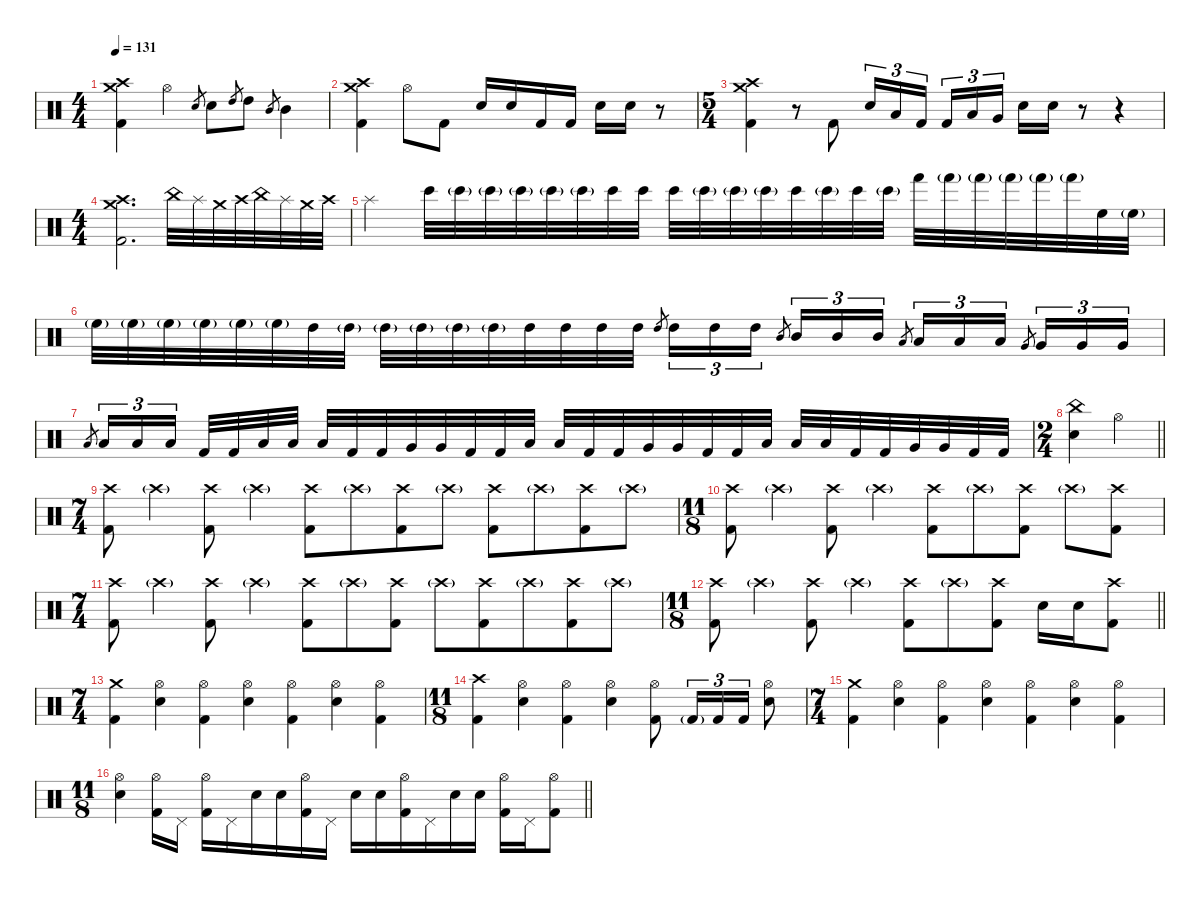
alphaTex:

\defaultSystemsLayout 4
\hideDynamics
\bracketExtendMode nobrackets
\singleTrackTrackNamePolicy hidden
\multiTrackTrackNamePolicy hidden
\otherSystemsTrackNameOrientation horizontal
\track ("Drums" "drm.") {defaultSystemsLayout 4 instrument percussion}
\staff {score}
\articulation defaults
\ts (4 4)
\beaming (8 2 2 2 2)
\tempo 131
\clef neutral
\ks c
("Kick (hit) 2" "Crash medium (hit)" "Crash high (hit)").4{dy fff beam Down} "Hi-Hat (open)".4{dy mf beam Down} "Electric Snare (hit)".8{gr dy mp beam Up} "Snare (hit) 2".8{dy fff beam Down} "High Tom (hit)".8{gr dy ff beam Up} "High Tom (hit)".8{dy fff beam Down} "Mid Tom (hit)".8{gr dy ff beam Up} "Mid Tom (hit)".4{dy fff beam Down} |
("Kick (hit) 2" "Crash medium (hit)" "Crash high (hit)").4{beam Down} "Hi-Hat (open)".8{dy mf beam Down} "Kick (hit) 2".8{dy fff beam Down} "Snare (hit) 2".16{beam Up} "Snare (hit) 2".16{beam Up} "Kick (hit) 2".16{beam Up} "Kick (hit) 2".16{beam Up} "Snare (hit) 2".16{beam Down} "Snare (hit) 2".16{beam Down} r.8{beam Down} |
\ts (5 4)
\beaming (8 6 4)
("Kick (hit) 2" "Crash medium (hit)" "Crash high (hit)").4{beam Down} r.8{beam Down} "Kick (hit) 2".8{beam Up} "Snare (hit) 2".16{tu (3 2) beam Up} "Low Tom (hit)".16{tu (3 2) beam Up} "Kick (hit) 2".16{tu (3 2) beam Up} "Kick (hit) 2".16{tu (3 2) beam Up} "Low Tom (hit)".16{tu (3 2) beam Up} "Very Low Tom (hit)".16{tu (3 2) beam Up} "Snare (hit) 2".16{beam Down} "Snare (hit) 2".16{beam Down} r.8{beam Down} r.4{beam Down} |
\ts (4 4)
\beaming (8 2 2 2 2)
("Kick (hit) 2" "Crash medium (hit)" "Crash high (hit)").2{d beam Down} "China (hit)".32{dy ppp beam Down} "Splash (hit)".32{beam Down} "Crash medium (hit)".32{dy pp beam Down} "Crash high (hit)".32{beam Down} "China (hit)".32{dy p beam Down} "Splash (hit)".32{beam Down} "Crash medium (hit)".32{dy mp beam Down} "Crash high (hit)".32{dy mf beam Down} |
"Splash (hit)".4{dy f beam Down} "Bongo High (hit)".32{beam Down} "Bongo High (hit)"{g}.32{dy ff beam Down} "Bongo High (hit)"{g}.32{beam Down} "Bongo High (hit)"{g}.32{beam Down} "Bongo High (hit)"{g}.32{beam Down} "Bongo High (hit)"{g}.32{beam Down} "Bongo High (hit)".32{dy f beam Down} "Bongo High (hit)".32{beam Down} "Bongo High (hit)".32{beam Down} "Bongo High (hit)"{g}.32{dy ff beam Down} "Bongo High (hit)"{g}.32{beam Down} "Bongo High (hit)"{g}.32{beam Down} "Bongo High (hit)".32{dy f beam Down} "Bongo High (hit)"{g}.32{dy ff beam Down} "Bongo High (hit)".32{dy f beam Down} "Bongo High (hit)"{g}.32{dy ff beam Down} "Hand (hit)".32{dy f beam Down} "Hand (hit)"{g}.32{dy ff beam Down} "Hand (hit)"{g}.32{beam Down} "Hand (hit)"{g}.32{beam Down} "Hand (hit)"{g}.32{beam Down} "Hand (hit)"{g}.32{beam Down} "High Floor Tom (hit)".32{dy f beam Down} "High Floor Tom (hit)"{g}.32{dy ff beam Down} |
"High Floor Tom (hit)"{g}.32{dy mf beam Down} "High Floor Tom (hit)"{g}.32{beam Down} "High Floor Tom (hit)"{g}.32{beam Down} "High Floor Tom (hit)"{g}.32{beam Down} "High Floor Tom (hit)"{g}.32{beam Down} "High Floor Tom (hit)"{g}.32{beam Down} "High Tom (hit)".32{dy f beam Down} "High Tom (hit)"{g}.32{dy mf beam Down} "High Tom (hit)"{g}.32{beam Down} "High Tom (hit)"{g}.32{beam Down} "High Tom (hit)"{g}.32{beam Down} "High Tom (hit)"{g}.32{beam Down} "High Tom (hit)".32{beam Down} "High Tom (hit)".32{dy f beam Down} "High Tom (hit)".32{beam Down} "High Tom (hit)".32{dy ff beam Down} "High Tom (hit)".8{gr dy f beam Up} "High Tom (hit)".16{tu (3 2) dy mf beam Down} "High Tom (hit)".16{tu (3 2) beam Down} "High Tom (hit)".16{tu (3 2) beam Down} "Mid Tom (hit)".8{gr dy f beam Up} "Mid Tom (hit)".16{tu (3 2) dy mf beam Up} "Mid Tom (hit)".16{tu (3 2) beam Up} "Mid Tom (hit)".16{tu (3 2) beam Up} "Low Tom (hit)".8{gr dy f beam Up} "Low Tom (hit)".16{tu (3 2) dy mf beam Up} "Low Tom (hit)".16{tu (3 2) beam Up} "Low Tom (hit)".16{tu (3 2) beam Up} "Very Low Tom (hit)".8{gr beam Up} "Very Low Tom (hit)".16{tu (3 2) beam Up} "Very Low Tom (hit)".16{tu (3 2) beam Up} "Very Low Tom (hit)".16{tu (3 2) beam Up} |
"Low Floor Tom (hit)".8{gr dy f beam Up} "Low Floor Tom (hit)".16{tu (3 2) dy ff beam Up} "Low Floor Tom (hit)".16{tu (3 2) beam Up} "Low Floor Tom (hit)".16{tu (3 2) beam Up} "Kick (hit) 2".32{dy f beam Up} "Kick (hit) 2".32{beam Up} "Low Floor Tom (hit)".32{beam Up} "Low Floor Tom (hit)".32{beam Up} "Low Floor Tom (hit)".32{beam Up} "Kick (hit) 2".32{beam Up} "Kick (hit) 2".32{beam Up} "Very Low Tom (hit)".32{beam Up} "Very Low Tom (hit)".32{beam Up} "Kick (hit) 2".32{beam Up} "Kick (hit) 2".32{beam Up} "Low Floor Tom (hit)".32{beam Up} "Low Floor Tom (hit)".32{beam Up} "Kick (hit) 2".32{beam Up} "Kick (hit) 2".32{beam Up} "Very Low Tom (hit)".32{beam Up} "Very Low Tom (hit)".32{beam Up} "Kick (hit) 2".32{beam Up} "Kick (hit) 2".32{beam Up} "Low Floor Tom (hit)".32{beam Up} "Low Floor Tom (hit)".32{beam Up} "Low Floor Tom (hit)".32{beam Up} "Kick (hit) 2".32{beam Up} "Kick (hit) 2".32{beam Up} "Very Low Tom (hit)".32{beam Up} "Very Low Tom (hit)".32{beam Up} "Kick (hit) 2".32{beam Up} "Kick (hit) 2".32{beam Up} |
\ts (2 4)
\beaming (8 2 2)
\barLineRight lightlight
("Snare (hit) 2" "China (hit)").4{dy fff beam Down} "Hi-Hat (open)".4{beam Down} |
\ts (7 4)
\beaming (8 6 4 4)
("Kick (hit) 2" "Crash high (hit)").8{beam Down} "Crash high (hit)"{g}.4{dy pp beam Down} ("Kick (hit) 2" "Crash high (hit)").8{dy fff beam Down} "Crash high (hit)"{g}.4{dy pp beam Down} ("Kick (hit) 2" "Crash high (hit)").8{dy fff beam Down} "Crash high (hit)"{g}.8{dy pp beam Down} ("Kick (hit) 2" "Crash high (hit)").8{dy fff beam Down} "Crash high (hit)"{g}.8{dy pp beam Down} ("Kick (hit) 2" "Crash high (hit)").8{dy fff beam Down} "Crash high (hit)"{g}.8{dy pp beam Down} ("Kick (hit) 2" "Crash high (hit)").8{dy fff beam Down} "Crash high (hit)"{g}.8{dy pp beam Down} |
\ts (11 8)
\beaming (8 3 3 3 2)
("Kick (hit) 2" "Crash high (hit)").8{dy fff beam Down} "Crash high (hit)"{g}.4{dy pp beam Down} ("Kick (hit) 2" "Crash high (hit)").8{dy fff beam Down} "Crash high (hit)"{g}.4{dy pp beam Down} ("Kick (hit) 2" "Crash high (hit)").8{dy fff beam Down} "Crash high (hit)"{g}.8{dy pp beam Down} ("Kick (hit) 2" "Crash high (hit)").8{dy fff beam Down} "Crash high (hit)"{g}.8{dy pp beam Down} ("Kick (hit) 2" "Crash high (hit)").8{dy fff beam Down} |
\ts (7 4)
\beaming (8 3 3 3 5)
("Kick (hit) 2" "Crash high (hit)").8{beam Down} "Crash high (hit)"{g}.4{dy pp beam Down} ("Kick (hit) 2" "Crash high (hit)").8{dy fff beam Down} "Crash high (hit)"{g}.4{dy pp beam Down} ("Kick (hit) 2" "Crash high (hit)").8{dy fff beam Down} "Crash high (hit)"{g}.8{dy pp beam Down} ("Kick (hit) 2" "Crash high (hit)").8{dy fff beam Down} "Crash high (hit)"{g}.8{dy pp beam Down} ("Kick (hit) 2" "Crash high (hit)").8{dy fff beam Down} "Crash high (hit)"{g}.8{dy pp beam Down} ("Kick (hit) 2" "Crash high (hit)").8{dy fff beam Down} "Crash high (hit)"{g}.8{dy pp beam Down} |
\ts (11 8)
\beaming (8 3 3 3 2)
\barLineRight lightlight
("Kick (hit) 2" "Crash high (hit)").8{dy fff beam Down} "Crash high (hit)"{g}.4{dy pp beam Down} ("Kick (hit) 2" "Crash high (hit)").8{dy fff beam Down} "Crash high (hit)"{g}.4{dy pp beam Down} ("Kick (hit) 2" "Crash high (hit)").8{dy fff beam Down} "Crash high (hit)"{g}.8{dy pp beam Down} ("Kick (hit) 2" "Crash high (hit)").8{dy fff beam Down} "Snare (hit) 2".16{beam Down} "Snare (hit) 2".16{beam Down} ("Kick (hit) 2" "Crash high (hit)").8{beam Down} |
\ts (7 4)
\beaming (8 3 3 3 5)
("Kick (hit) 2" "Crash medium (hit)").4{beam Down} ("Snare (hit) 2" "Hi-Hat (open)").4{beam Down} ("Kick (hit) 2" "Hi-Hat (open)").4{beam Down} ("Snare (hit) 2" "Hi-Hat (open)").4{beam Down} ("Kick (hit) 2" "Hi-Hat (open)").4{beam Down} ("Snare (hit) 2" "Hi-Hat (open)").4{beam Down} ("Kick (hit) 2" "Hi-Hat (open)").4{beam Down} |
\ts (11 8)
\beaming (8 3 3 3 2)
("Kick (hit) 2" "Crash high (hit)").4{beam Down} ("Snare (hit) 2" "Hi-Hat (open)").4{beam Down} ("Kick (hit) 2" "Hi-Hat (open)").4{beam Down} ("Snare (hit) 2" "Hi-Hat (open)").4{beam Down} ("Kick (hit) 2" "Hi-Hat (open)").8{beam Down} "Kick (hit) 2"{g}.16{tu (3 2) dy mf beam Up} "Kick (hit) 2".16{tu (3 2) dy fff beam Up} "Kick (hit) 2".16{tu (3 2) beam Up} ("Snare (hit) 2" "Hi-Hat (open)").8{beam Down} |
\ts (7 4)
\beaming (8 3 3 3 5)
("Kick (hit) 2" "Crash medium (hit)").4{beam Down} ("Snare (hit) 2" "Hi-Hat (open)").4{beam Down} ("Kick (hit) 2" "Hi-Hat (open)").4{beam Down} ("Snare (hit) 2" "Hi-Hat (open)").4{beam Down} ("Kick (hit) 2" "Hi-Hat (open)").4{beam Down} ("Snare (hit) 2" "Hi-Hat (open)").4{beam Down} ("Kick (hit) 2" "Hi-Hat (open)").4{beam Down} |
\ts (11 8)
\beaming (8 3 3 3 2)
\barLineRight lightlight
("Snare (hit) 2" "Hi-Hat (open)").4{beam Down} ("Kick (hit) 2" "Hi-Hat (open)").16{beam Down} "Pedal Hi-Hat (hit)".16{dy mp beam Down} ("Kick (hit) 2" "Hi-Hat (open)").16{dy fff beam Down} "Pedal Hi-Hat (hit)".16{dy mp beam Down} "Snare (hit) 2".16{dy fff beam Down} "Snare (hit) 2".16{beam Down} ("Kick (hit) 2" "Hi-Hat (open)").16{beam Down} "Pedal Hi-Hat (hit)".16{dy mp beam Down} "Snare (hit) 2".16{dy fff beam Down} "Snare (hit) 2".16{beam Down} ("Kick (hit) 2" "Hi-Hat (open)").16{beam Down} "Pedal Hi-Hat (hit)".16{dy mp beam Down} "Snare (hit) 2".16{dy fff beam Down} "Snare (hit) 2".16{beam Down} ("Kick (hit) 2" "Hi-Hat (open)").16{beam Down} "Pedal Hi-Hat (hit)".16{dy mp beam Down} ("Kick (hit) 2" "Hi-Hat (open)").8{dy fff beam Down}
